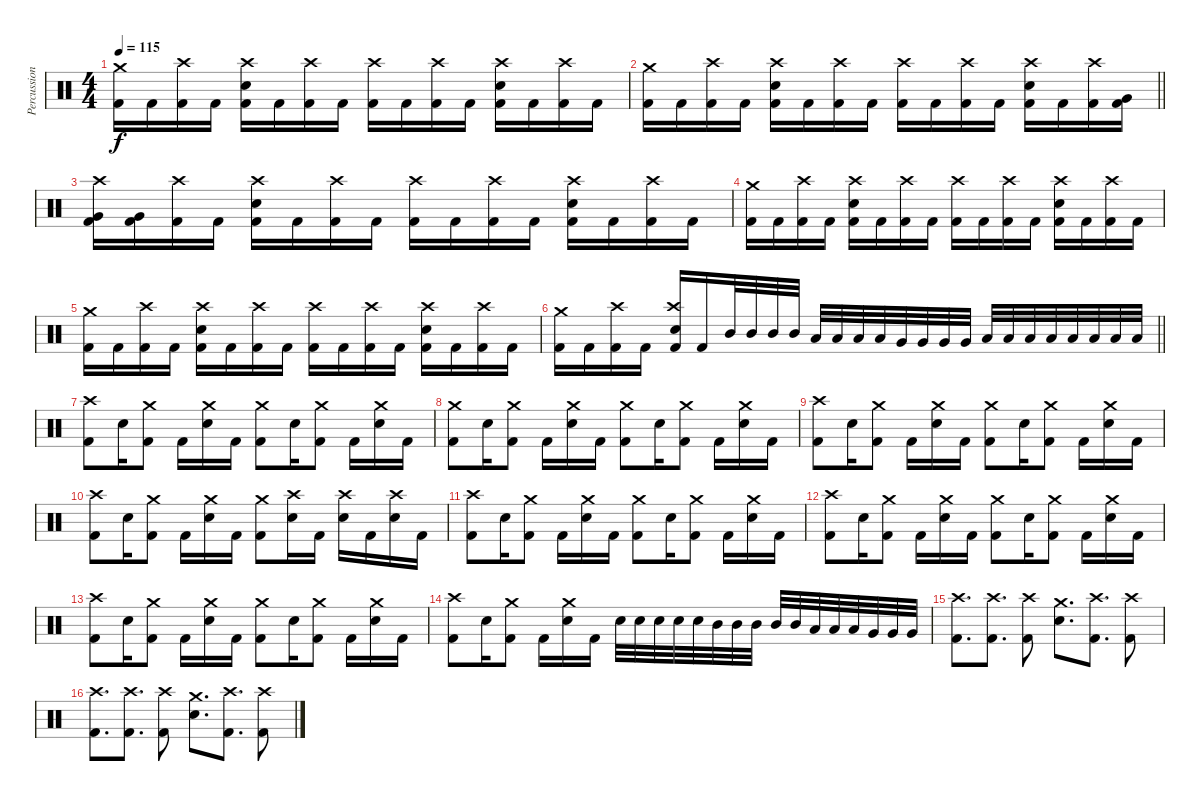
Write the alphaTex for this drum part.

\track ("Percussion" "Percussion") {instrument percussion}
\staff {score}
\articulation defaults
\ts (4 4)
\tempo 115
\clef neutral
\ks c
("Crash medium (hit)" "Kick (hit) 2").16{dy f} "Kick (hit) 2".16 ("Crash high (hit)" "Kick (hit) 2").16 "Kick (hit) 2".16 ("Crash high (hit)" "Snare (hit) 2" "Kick (hit) 2").16 "Kick (hit) 2".16 ("Crash high (hit)" "Kick (hit) 2").16 "Kick (hit) 2".16 ("Crash high (hit)" "Kick (hit) 2").16 "Kick (hit) 2".16 ("Crash high (hit)" "Kick (hit) 2").16 "Kick (hit) 2".16 ("Crash high (hit)" "Snare (hit) 2" "Kick (hit) 2").16 "Kick (hit) 2".16 ("Crash high (hit)" "Kick (hit) 2").16 "Kick (hit) 2".16 |
\barLineRight lightlight
("Crash medium (hit)" "Kick (hit) 2").16 "Kick (hit) 2".16 ("Crash high (hit)" "Kick (hit) 2").16 "Kick (hit) 2".16 ("Crash high (hit)" "Snare (hit) 2" "Kick (hit) 2").16 "Kick (hit) 2".16 ("Crash high (hit)" "Kick (hit) 2").16 "Kick (hit) 2".16 ("Crash high (hit)" "Kick (hit) 2").16 "Kick (hit) 2".16 ("Crash high (hit)" "Kick (hit) 2").16 "Kick (hit) 2".16 ("Crash high (hit)" "Snare (hit) 2" "Kick (hit) 2").16 "Kick (hit) 2".16 ("Crash high (hit)" "Kick (hit) 2").16 ("Very Low Tom (hit)" "Kick (hit) 2").16 |
("Crash high (hit)" "Very Low Tom (hit)" "Kick (hit) 2").16 ("Very Low Tom (hit)" "Kick (hit) 2").16 ("Crash high (hit)" "Kick (hit) 2").16 "Kick (hit) 2".16 ("Crash high (hit)" "Snare (hit) 2" "Kick (hit) 2").16 "Kick (hit) 2".16 ("Crash high (hit)" "Kick (hit) 2").16 "Kick (hit) 2".16 ("Crash high (hit)" "Kick (hit) 2").16 "Kick (hit) 2".16 ("Crash high (hit)" "Kick (hit) 2").16 "Kick (hit) 2".16 ("Crash high (hit)" "Snare (hit) 2" "Kick (hit) 2").16 "Kick (hit) 2".16 ("Crash high (hit)" "Kick (hit) 2").16 "Kick (hit) 2".16 |
("Crash medium (hit)" "Kick (hit) 2").16 "Kick (hit) 2".16 ("Crash high (hit)" "Kick (hit) 2").16 "Kick (hit) 2".16 ("Crash high (hit)" "Snare (hit) 2" "Kick (hit) 2").16 "Kick (hit) 2".16 ("Crash high (hit)" "Kick (hit) 2").16 "Kick (hit) 2".16 ("Crash high (hit)" "Kick (hit) 2").16 "Kick (hit) 2".16 ("Crash high (hit)" "Kick (hit) 2").16 "Kick (hit) 2".16 ("Crash high (hit)" "Snare (hit) 2" "Kick (hit) 2").16 "Kick (hit) 2".16 ("Crash high (hit)" "Kick (hit) 2").16 "Kick (hit) 2".16 |
("Crash medium (hit)" "Kick (hit) 2").16 "Kick (hit) 2".16 ("Crash high (hit)" "Kick (hit) 2").16 "Kick (hit) 2".16 ("Crash high (hit)" "Snare (hit) 2" "Kick (hit) 2").16 "Kick (hit) 2".16 ("Crash high (hit)" "Kick (hit) 2").16 "Kick (hit) 2".16 ("Crash high (hit)" "Kick (hit) 2").16 "Kick (hit) 2".16 ("Crash high (hit)" "Kick (hit) 2").16 "Kick (hit) 2".16 ("Crash high (hit)" "Snare (hit) 2" "Kick (hit) 2").16 "Kick (hit) 2".16 ("Crash high (hit)" "Kick (hit) 2").16 "Kick (hit) 2".16 |
\barLineRight lightlight
("Crash medium (hit)" "Kick (hit) 2").16 "Kick (hit) 2".16 ("Crash high (hit)" "Kick (hit) 2").16 "Kick (hit) 2".16 ("Crash high (hit)" "Snare (hit) 2" "Kick (hit) 2").16 "Kick (hit) 2".16 "Mid Tom (hit)".32 "Mid Tom (hit)".32 "Mid Tom (hit)".32 "Mid Tom (hit)".32 "Low Tom (hit)".32 "Low Tom (hit)".32 "Low Tom (hit)".32 "Low Tom (hit)".32 "Very Low Tom (hit)".32 "Very Low Tom (hit)".32 "Very Low Tom (hit)".32 "Very Low Tom (hit)".32 "Low Floor Tom (hit)".32 "Low Floor Tom (hit)".32 "Low Floor Tom (hit)".32 "Low Floor Tom (hit)".32 "Low Floor Tom (hit)".32 "Low Floor Tom (hit)".32 "Low Floor Tom (hit)".32 "Low Floor Tom (hit)".32 |
("Crash high (hit)" "Kick (hit) 2").8 "Snare (hit) 2".16 ("Crash medium (hit)" "Kick (hit) 2").8 "Kick (hit) 2".16 ("Crash medium (hit)" "Snare (hit) 2").16 "Kick (hit) 2".16 ("Crash medium (hit)" "Kick (hit) 2").8 "Snare (hit) 2".16 ("Crash medium (hit)" "Kick (hit) 2").8 "Kick (hit) 2".16 ("Crash medium (hit)" "Snare (hit) 2").16 "Kick (hit) 2".16 |
("Crash medium (hit)" "Kick (hit) 2").8 "Snare (hit) 2".16 ("Crash medium (hit)" "Kick (hit) 2").8 "Kick (hit) 2".16 ("Crash medium (hit)" "Snare (hit) 2").16 "Kick (hit) 2".16 ("Crash medium (hit)" "Kick (hit) 2").8 "Snare (hit) 2".16 ("Crash medium (hit)" "Kick (hit) 2").8 "Kick (hit) 2".16 ("Crash medium (hit)" "Snare (hit) 2").16 "Kick (hit) 2".16 |
("Crash high (hit)" "Kick (hit) 2").8 "Snare (hit) 2".16 ("Crash medium (hit)" "Kick (hit) 2").8 "Kick (hit) 2".16 ("Crash medium (hit)" "Snare (hit) 2").16 "Kick (hit) 2".16 ("Crash medium (hit)" "Kick (hit) 2").8 "Snare (hit) 2".16 ("Crash medium (hit)" "Kick (hit) 2").8 "Kick (hit) 2".16 ("Crash medium (hit)" "Snare (hit) 2").16 "Kick (hit) 2".16 |
("Crash high (hit)" "Kick (hit) 2").8 "Snare (hit) 2".16 ("Crash medium (hit)" "Kick (hit) 2").8 "Kick (hit) 2".16 ("Crash medium (hit)" "Snare (hit) 2").16 "Kick (hit) 2".16 ("Crash medium (hit)" "Kick (hit) 2").8 ("Crash high (hit)" "Snare (hit) 2").16 "Kick (hit) 2".16 ("Crash high (hit)" "Snare (hit) 2").16 "Kick (hit) 2".16 ("Crash high (hit)" "Snare (hit) 2").16 "Kick (hit) 2".16 |
("Crash high (hit)" "Kick (hit) 2").8 "Snare (hit) 2".16 ("Crash medium (hit)" "Kick (hit) 2").8 "Kick (hit) 2".16 ("Crash medium (hit)" "Snare (hit) 2").16 "Kick (hit) 2".16 ("Crash medium (hit)" "Kick (hit) 2").8 "Snare (hit) 2".16 ("Crash medium (hit)" "Kick (hit) 2").8 "Kick (hit) 2".16 ("Crash medium (hit)" "Snare (hit) 2").16 "Kick (hit) 2".16 |
("Crash high (hit)" "Kick (hit) 2").8 "Snare (hit) 2".16 ("Crash medium (hit)" "Kick (hit) 2").8 "Kick (hit) 2".16 ("Crash medium (hit)" "Snare (hit) 2").16 "Kick (hit) 2".16 ("Crash medium (hit)" "Kick (hit) 2").8 "Snare (hit) 2".16 ("Crash medium (hit)" "Kick (hit) 2").8 "Kick (hit) 2".16 ("Crash medium (hit)" "Snare (hit) 2").16 "Kick (hit) 2".16 |
("Crash high (hit)" "Kick (hit) 2").8 "Snare (hit) 2".16 ("Crash medium (hit)" "Kick (hit) 2").8 "Kick (hit) 2".16 ("Crash medium (hit)" "Snare (hit) 2").16 "Kick (hit) 2".16 ("Crash medium (hit)" "Kick (hit) 2").8 "Snare (hit) 2".16 ("Crash medium (hit)" "Kick (hit) 2").8 "Kick (hit) 2".16 ("Crash medium (hit)" "Snare (hit) 2").16 "Kick (hit) 2".16 |
("Crash high (hit)" "Kick (hit) 2").8 "Snare (hit) 2".16 ("Crash medium (hit)" "Kick (hit) 2").8 "Kick (hit) 2".16 ("Crash medium (hit)" "Snare (hit) 2").16 "Kick (hit) 2".16 "Snare (hit) 2".32 "Snare (hit) 2".32 "Snare (hit) 2".32 "Snare (hit) 2".32 "Snare (hit) 2".32 "Mid Tom (hit)".32 "Mid Tom (hit)".32 "Mid Tom (hit)".32 "Mid Tom (hit)".32 "Mid Tom (hit)".32 "Low Tom (hit)".32 "Low Tom (hit)".32 "Low Tom (hit)".32 "Very Low Tom (hit)".32 "Very Low Tom (hit)".32 "Very Low Tom (hit)".32 |
("Crash high (hit)" "Kick (hit) 2").8{d} ("Crash high (hit)" "Kick (hit) 2").8{d} ("Crash high (hit)" "Kick (hit) 2").8 ("Crash medium (hit)" "Snare (hit) 2").8{d} ("Crash high (hit)" "Kick (hit) 2").8{d} ("Crash high (hit)" "Kick (hit) 2").8 |
("Crash high (hit)" "Kick (hit) 2").8{d} ("Crash high (hit)" "Kick (hit) 2").8{d} ("Crash high (hit)" "Kick (hit) 2").8 ("Crash medium (hit)" "Snare (hit) 2").8{d} ("Crash high (hit)" "Kick (hit) 2").8{d} ("Crash high (hit)" "Kick (hit) 2").8
